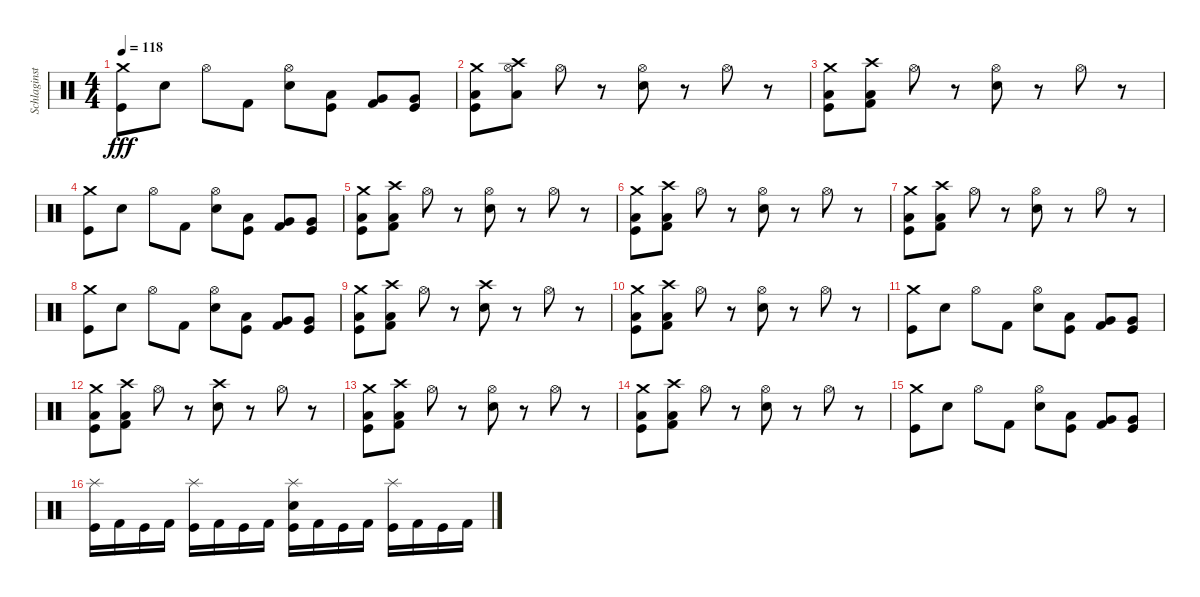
\track ("Schlaginstrumente - Auswahl" "Schlaginst") {instrument percussion}
\staff {score}
\articulation defaults
\ts (4 4)
\tempo 118
\clef neutral
\ks c
("Crash medium (hit)" "Kick (hit)").8{dy fff} "Snare (hit) 2".8 "Hi-Hat (open)".8 "Kick (hit) 2".8 ("Hi-Hat (open)" "Snare (hit) 2").8 ("Low Tom (hit)" "Kick (hit)").8 ("Very Low Tom (hit)" "Kick (hit) 2").8 ("Very Low Tom (hit)" "Kick (hit)").8 |
("Crash medium (hit)" "Low Tom (hit)" "Kick (hit)").8 ("Crash high (hit)" "Low Tom (hit)" "Hi-Hat (open)").8 "Hi-Hat (open)".8 r.8 ("Hi-Hat (open)" "Snare (hit) 2").8 r.8 "Hi-Hat (open)".8 r.8 |
("Crash medium (hit)" "Low Tom (hit)" "Kick (hit)").8 ("Crash high (hit)" "Low Tom (hit)" "Kick (hit) 2").8 "Hi-Hat (open)".8 r.8 ("Hi-Hat (open)" "Snare (hit) 2").8 r.8 "Hi-Hat (open)".8 r.8 |
("Crash medium (hit)" "Kick (hit)").8 "Snare (hit) 2".8 "Hi-Hat (open)".8 "Kick (hit) 2".8 ("Hi-Hat (open)" "Snare (hit) 2").8 ("Low Tom (hit)" "Kick (hit)").8 ("Very Low Tom (hit)" "Kick (hit) 2").8 ("Very Low Tom (hit)" "Kick (hit)").8 |
("Crash medium (hit)" "Low Tom (hit)" "Kick (hit)").8 ("Crash high (hit)" "Low Tom (hit)" "Kick (hit) 2").8 "Hi-Hat (open)".8 r.8 ("Hi-Hat (open)" "Snare (hit) 2").8 r.8 "Hi-Hat (open)".8 r.8 |
("Crash medium (hit)" "Low Tom (hit)" "Kick (hit)").8 ("Crash high (hit)" "Low Tom (hit)" "Kick (hit) 2").8 "Hi-Hat (open)".8 r.8 ("Hi-Hat (open)" "Snare (hit) 2").8 r.8 "Hi-Hat (open)".8 r.8 |
("Crash medium (hit)" "Low Tom (hit)" "Kick (hit)").8 ("Crash high (hit)" "Low Tom (hit)" "Kick (hit) 2").8 "Hi-Hat (open)".8 r.8 ("Hi-Hat (open)" "Snare (hit) 2").8 r.8 "Hi-Hat (open)".8 r.8 |
("Crash medium (hit)" "Kick (hit)").8 "Snare (hit) 2".8 "Hi-Hat (open)".8 "Kick (hit) 2".8 ("Hi-Hat (open)" "Snare (hit) 2").8 ("Low Tom (hit)" "Kick (hit)").8 ("Very Low Tom (hit)" "Kick (hit) 2").8 ("Very Low Tom (hit)" "Kick (hit)").8 |
("Crash medium (hit)" "Low Tom (hit)" "Kick (hit)").8 ("Crash high (hit)" "Low Tom (hit)" "Kick (hit) 2").8 "Hi-Hat (open)".8 r.8 ("Crash high (hit)" "Snare (hit) 2").8 r.8 "Hi-Hat (open)".8 r.8 |
("Crash medium (hit)" "Low Tom (hit)" "Kick (hit)").8 ("Crash high (hit)" "Low Tom (hit)" "Kick (hit) 2").8 "Hi-Hat (open)".8 r.8 ("Hi-Hat (open)" "Snare (hit) 2").8 r.8 "Hi-Hat (open)".8 r.8 |
("Crash medium (hit)" "Kick (hit)").8 "Snare (hit) 2".8 "Hi-Hat (open)".8 "Kick (hit) 2".8 ("Hi-Hat (open)" "Snare (hit) 2").8 ("Low Tom (hit)" "Kick (hit)").8 ("Very Low Tom (hit)" "Kick (hit) 2").8 ("Very Low Tom (hit)" "Kick (hit)").8 |
("Crash medium (hit)" "Low Tom (hit)" "Kick (hit)").8 ("Crash high (hit)" "Low Tom (hit)" "Kick (hit) 2").8 "Hi-Hat (open)".8 r.8 ("Crash high (hit)" "Snare (hit) 2").8 r.8 "Hi-Hat (open)".8 r.8 |
("Crash medium (hit)" "Low Tom (hit)" "Kick (hit)").8 ("Crash high (hit)" "Low Tom (hit)" "Kick (hit) 2").8 "Hi-Hat (open)".8 r.8 ("Hi-Hat (open)" "Snare (hit) 2").8 r.8 "Hi-Hat (open)".8 r.8 |
("Crash medium (hit)" "Low Tom (hit)" "Kick (hit)").8 ("Crash high (hit)" "Low Tom (hit)" "Kick (hit) 2").8 "Hi-Hat (open)".8 r.8 ("Hi-Hat (open)" "Snare (hit) 2").8 r.8 "Hi-Hat (open)".8 r.8 |
("Crash medium (hit)" "Kick (hit)").8 "Snare (hit) 2".8 "Hi-Hat (open)".8 "Kick (hit) 2".8 ("Hi-Hat (open)" "Snare (hit) 2").8 ("Low Tom (hit)" "Kick (hit)").8 ("Very Low Tom (hit)" "Kick (hit) 2").8 ("Very Low Tom (hit)" "Kick (hit)").8 |
("Splash (hit)" "Kick (hit)").16 "Kick (hit) 2".16 "Kick (hit)".16 "Kick (hit) 2".16 ("Splash (hit)" "Kick (hit)").16 "Kick (hit) 2".16 "Kick (hit)".16 "Kick (hit) 2".16 ("Splash (hit)" "Snare (hit) 2" "Kick (hit)").16 "Kick (hit) 2".16 "Kick (hit)".16 "Kick (hit) 2".16 ("Splash (hit)" "Kick (hit)").16 "Kick (hit) 2".16 "Kick (hit)".16 "Kick (hit) 2".16
